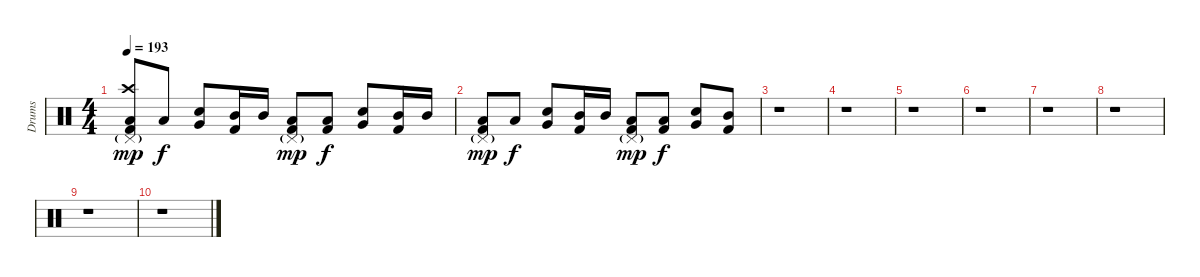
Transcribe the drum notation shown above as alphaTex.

\track ("Drums" "Drums") {instrument percussion}
\staff {score}
\articulation defaults
\ts (4 4)
\tempo 193
\clef neutral
\ks c
("Pedal Hi-Hat (hit)"{g} "Crash high (hit)" "Low Tom (hit)" "Kick (hit) 2").8{dy mp} "Low Tom (hit)".8{dy f} ("Very Low Tom (hit)" "Electric Snare (hit)").8 ("Mid Tom (hit)" "Kick (hit) 2").16 "Mid Tom (hit)".16 ("Pedal Hi-Hat (hit)"{g} "Low Tom (hit)" "Kick (hit) 2").8{dy mp} ("Low Tom (hit)" "Kick (hit) 2").8{dy f} ("Very Low Tom (hit)" "Electric Snare (hit)").8 ("Mid Tom (hit)" "Kick (hit) 2").16 "Mid Tom (hit)".16 |
("Pedal Hi-Hat (hit)"{g} "Low Tom (hit)" "Kick (hit) 2").8{dy mp} "Low Tom (hit)".8{dy f} ("Very Low Tom (hit)" "Electric Snare (hit)").8 ("Mid Tom (hit)" "Kick (hit) 2").16 "Mid Tom (hit)".16 ("Pedal Hi-Hat (hit)"{g} "Low Tom (hit)" "Kick (hit) 2").8{dy mp} ("Low Tom (hit)" "Kick (hit) 2").8{dy f} ("Very Low Tom (hit)" "Electric Snare (hit)").8 ("Mid Tom (hit)" "Kick (hit) 2").8 |
r.1 |
r.1 |
r.1 |
r.1 |
r.1 |
r.1 |
r.1 |
r.1
